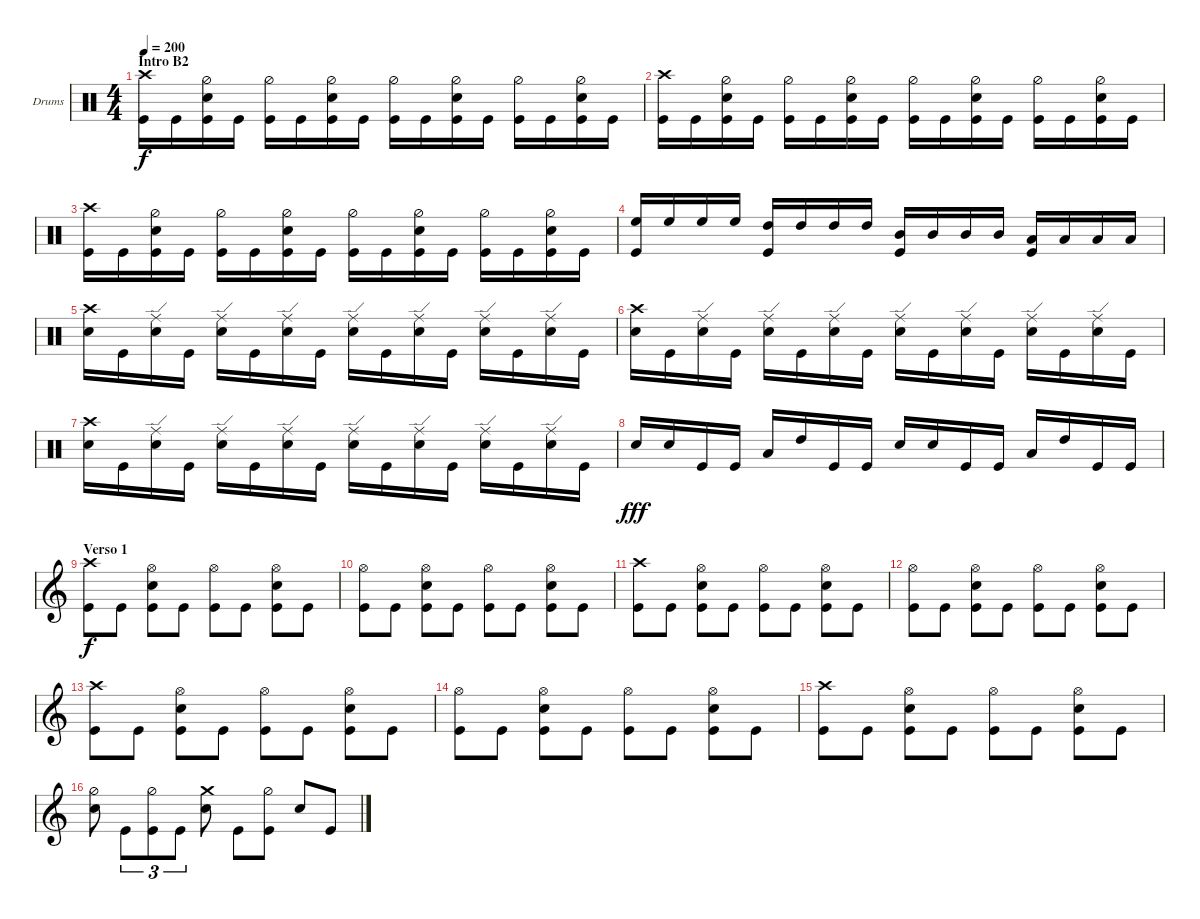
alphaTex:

\defaultSystemsLayout 4
\bracketExtendMode groupsimilarinstruments
\firstSystemTrackNameOrientation horizontal
\otherSystemsTrackNameOrientation horizontal
\track ("Drums" "Drums") {instrument percussion}
\staff {score}
\articulation defaults
\ts (4 4)
\section ("" "Intro B2")
\tempo 200
\clef neutral
\ks c
("Kick (hit)" "Crash high (hit)").16{dy f} "Kick (hit)".16 ("Snare (hit) 2" "Hi-Hat (half)" "Kick (hit)").16 "Kick (hit)".16 ("Hi-Hat (half)" "Kick (hit)").16 "Kick (hit)".16 ("Snare (hit) 2" "Hi-Hat (half)" "Kick (hit)").16 "Kick (hit)".16 ("Hi-Hat (half)" "Kick (hit)").16 "Kick (hit)".16 ("Snare (hit) 2" "Hi-Hat (half)" "Kick (hit)").16 "Kick (hit)".16 ("Hi-Hat (half)" "Kick (hit)").16 "Kick (hit)".16 ("Snare (hit) 2" "Hi-Hat (half)" "Kick (hit)").16 "Kick (hit)".16 |
("Kick (hit)" "Crash high (hit)").16 "Kick (hit)".16 ("Snare (hit) 2" "Hi-Hat (half)" "Kick (hit)").16 "Kick (hit)".16 ("Hi-Hat (half)" "Kick (hit)").16 "Kick (hit)".16 ("Snare (hit) 2" "Hi-Hat (half)" "Kick (hit)").16 "Kick (hit)".16 ("Hi-Hat (half)" "Kick (hit)").16 "Kick (hit)".16 ("Snare (hit) 2" "Hi-Hat (half)" "Kick (hit)").16 "Kick (hit)".16 ("Hi-Hat (half)" "Kick (hit)").16 "Kick (hit)".16 ("Snare (hit) 2" "Hi-Hat (half)" "Kick (hit)").16 "Kick (hit)".16 |
("Kick (hit)" "Crash high (hit)").16 "Kick (hit)".16 ("Snare (hit) 2" "Hi-Hat (half)" "Kick (hit)").16 "Kick (hit)".16 ("Hi-Hat (half)" "Kick (hit)").16 "Kick (hit)".16 ("Snare (hit) 2" "Hi-Hat (half)" "Kick (hit)").16 "Kick (hit)".16 ("Hi-Hat (half)" "Kick (hit)").16 "Kick (hit)".16 ("Snare (hit) 2" "Hi-Hat (half)" "Kick (hit)").16 "Kick (hit)".16 ("Hi-Hat (half)" "Kick (hit)").16 "Kick (hit)".16 ("Snare (hit) 2" "Hi-Hat (half)" "Kick (hit)").16 "Kick (hit)".16 |
("High Floor Tom (hit)" "Kick (hit)").16 "High Floor Tom (hit)".16 "High Floor Tom (hit)".16 "High Floor Tom (hit)".16 ("High Tom (hit)" "Kick (hit)").16 "High Tom (hit)".16 "High Tom (hit)".16 "High Tom (hit)".16 ("Mid Tom (hit)" "Kick (hit)").16 "Mid Tom (hit)".16 "Mid Tom (hit)".16 "Mid Tom (hit)".16 ("Low Tom (hit)" "Kick (hit)").16 "Low Tom (hit)".16 "Low Tom (hit)".16 "Low Tom (hit)".16 |
("Crash high (hit)" "Snare (hit) 2").16 "Kick (hit)".16 ("Ride (edge)" "Snare (hit) 2").16 "Kick (hit)".16 ("Ride (edge)" "Snare (hit) 2").16 "Kick (hit)".16 ("Ride (edge)" "Snare (hit) 2").16 "Kick (hit)".16 ("Ride (edge)" "Snare (hit) 2").16 "Kick (hit)".16 ("Ride (edge)" "Snare (hit) 2").16 "Kick (hit)".16 ("Ride (edge)" "Snare (hit) 2").16 "Kick (hit)".16 ("Ride (edge)" "Snare (hit) 2").16 "Kick (hit)".16 |
("Crash high (hit)" "Snare (hit) 2").16 "Kick (hit)".16 ("Ride (edge)" "Snare (hit) 2").16 "Kick (hit)".16 ("Ride (edge)" "Snare (hit) 2").16 "Kick (hit)".16 ("Ride (edge)" "Snare (hit) 2").16 "Kick (hit)".16 ("Ride (edge)" "Snare (hit) 2").16 "Kick (hit)".16 ("Ride (edge)" "Snare (hit) 2").16 "Kick (hit)".16 ("Ride (edge)" "Snare (hit) 2").16 "Kick (hit)".16 ("Ride (edge)" "Snare (hit) 2").16 "Kick (hit)".16 |
("Crash high (hit)" "Snare (hit) 2").16 "Kick (hit)".16 ("Ride (edge)" "Snare (hit) 2").16 "Kick (hit)".16 ("Ride (edge)" "Snare (hit) 2").16 "Kick (hit)".16 ("Ride (edge)" "Snare (hit) 2").16 "Kick (hit)".16 ("Ride (edge)" "Snare (hit) 2").16 "Kick (hit)".16 ("Ride (edge)" "Snare (hit) 2").16 "Kick (hit)".16 ("Ride (edge)" "Snare (hit) 2").16 "Kick (hit)".16 ("Ride (edge)" "Snare (hit) 2").16 "Kick (hit)".16 |
"Snare (hit) 2".16{dy fff} "Snare (hit) 2".16 "Kick (hit)".16 "Kick (hit)".16 "Low Tom (hit)".16 "High Tom (hit)".16 "Kick (hit)".16 "Kick (hit)".16 "Snare (hit) 2".16 "Snare (hit) 2".16 "Kick (hit)".16 "Kick (hit)".16 "Low Tom (hit)".16 "High Tom (hit)".16 "Kick (hit)".16 "Kick (hit)".16 |
\section ("" "Verso 1")
\clef g2
("Kick (hit)" "Crash high (hit)").8{dy f} "Kick (hit)".8 ("Snare (hit) 2" "Hi-Hat (open)" "Kick (hit)").8 "Kick (hit)".8 ("Hi-Hat (open)" "Kick (hit)").8 "Kick (hit)".8 ("Snare (hit) 2" "Hi-Hat (open)" "Kick (hit)").8 "Kick (hit)".8 |
("Kick (hit)" "Hi-Hat (open)").8 "Kick (hit)".8 ("Snare (hit) 2" "Hi-Hat (open)" "Kick (hit)").8 "Kick (hit)".8 ("Hi-Hat (open)" "Kick (hit)").8 "Kick (hit)".8 ("Snare (hit) 2" "Hi-Hat (open)" "Kick (hit)").8 "Kick (hit)".8 |
("Kick (hit)" "Crash high (hit)").8 "Kick (hit)".8 ("Snare (hit) 2" "Hi-Hat (open)" "Kick (hit)").8 "Kick (hit)".8 ("Hi-Hat (open)" "Kick (hit)").8 "Kick (hit)".8 ("Snare (hit) 2" "Hi-Hat (open)" "Kick (hit)").8 "Kick (hit)".8 |
("Kick (hit)" "Hi-Hat (open)").8 "Kick (hit)".8 ("Snare (hit) 2" "Hi-Hat (open)" "Kick (hit)").8 "Kick (hit)".8 ("Hi-Hat (open)" "Kick (hit)").8 "Kick (hit)".8 ("Snare (hit) 2" "Hi-Hat (open)" "Kick (hit)").8 "Kick (hit)".8 |
("Kick (hit)" "Crash high (hit)").8 "Kick (hit)".8 ("Snare (hit) 2" "Hi-Hat (open)" "Kick (hit)").8 "Kick (hit)".8 ("Hi-Hat (open)" "Kick (hit)").8 "Kick (hit)".8 ("Snare (hit) 2" "Hi-Hat (open)" "Kick (hit)").8 "Kick (hit)".8 |
("Kick (hit)" "Hi-Hat (open)").8 "Kick (hit)".8 ("Snare (hit) 2" "Hi-Hat (open)" "Kick (hit)").8 "Kick (hit)".8 ("Hi-Hat (open)" "Kick (hit)").8 "Kick (hit)".8 ("Snare (hit) 2" "Hi-Hat (open)" "Kick (hit)").8 "Kick (hit)".8 |
("Kick (hit)" "Crash high (hit)").8 "Kick (hit)".8 ("Snare (hit) 2" "Hi-Hat (open)" "Kick (hit)").8 "Kick (hit)".8 ("Hi-Hat (open)" "Kick (hit)").8 "Kick (hit)".8 ("Snare (hit) 2" "Hi-Hat (open)" "Kick (hit)").8 "Kick (hit)".8 |
("Hi-Hat (half)" "Snare (hit) 2").8 "Kick (hit)".8{tu (3 2)} ("Hi-Hat (half)" "Kick (hit)").8{tu (3 2)} "Kick (hit)".8{tu (3 2)} ("Snare (hit) 2" "Crash medium (hit)").8 "Kick (hit)".8 ("Hi-Hat (half)" "Kick (hit)").8 "Snare (hit) 2".8 "Kick (hit)".8
